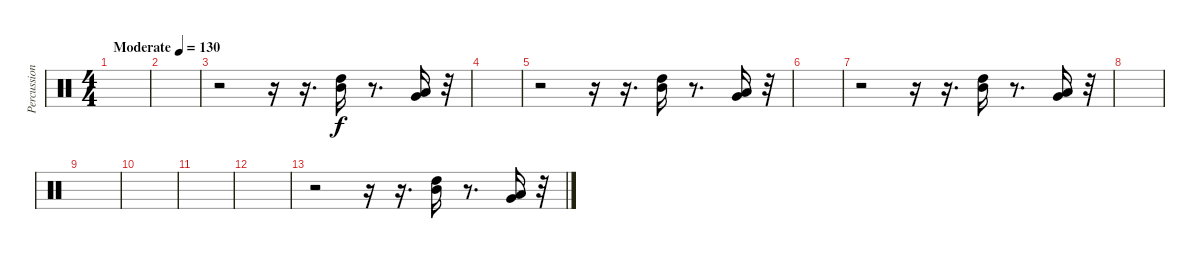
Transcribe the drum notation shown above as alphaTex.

\track ("Percussion" "Percussion") {instrument percussion bank 177}
\staff {score}
\articulation defaults
\ts (4 4)
\tempo (130 "Moderate")
\clef neutral
\ks c
|
|
r.2 r.16 r.16{d} ("High Tom (hit)" "Mid Tom (hit)").16 r.8{d} ("Low Tom (hit)" "Very Low Tom (hit)").16 r.32 |
|
r.2 r.16 r.16{d} ("High Tom (hit)" "Mid Tom (hit)").16 r.8{d} ("Low Tom (hit)" "Very Low Tom (hit)").16 r.32 |
|
r.2 r.16 r.16{d} ("High Tom (hit)" "Mid Tom (hit)").16 r.8{d} ("Low Tom (hit)" "Very Low Tom (hit)").16 r.32 |
|
|
|
|
|
r.2 r.16 r.16{d} ("High Tom (hit)" "Mid Tom (hit)").16 r.8{d} ("Low Tom (hit)" "Very Low Tom (hit)").16 r.32
